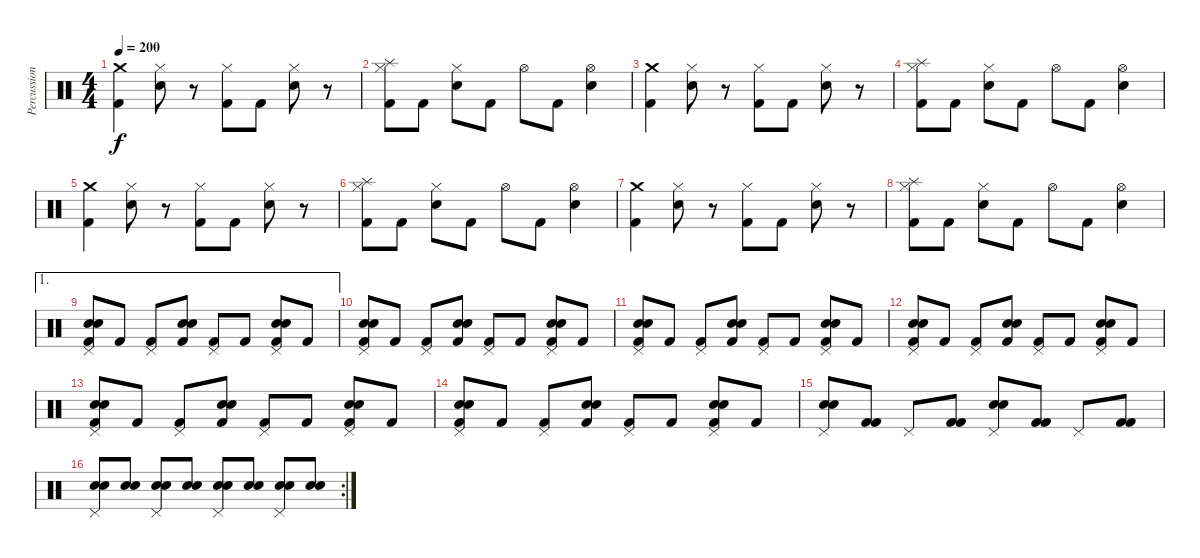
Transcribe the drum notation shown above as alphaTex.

\track ("Percussion" "Percussion") {instrument percussion}
\staff {score}
\articulation defaults
\ts (4 4)
\tempo 200
\clef neutral
\ks c
("Crash medium (hit)" "Kick (hit) 2").4{dy f} ("Hi-Hat (closed)" "Snare (hit) 2").8 r.8 ("Hi-Hat (closed)" "Kick (hit) 2").8 "Kick (hit) 2".8 ("Hi-Hat (closed)" "Snare (hit) 2").8 r.8 |
("Splash (hit)" "Hi-Hat (closed)" "Kick (hit) 2").8 "Kick (hit) 2".8 ("Hi-Hat (closed)" "Snare (hit) 2").8 "Kick (hit) 2".8 "Hi-Hat (open)".8 "Kick (hit) 2".8 ("Hi-Hat (open)" "Snare (hit) 2").4 |
("Crash medium (hit)" "Kick (hit) 2").4 ("Hi-Hat (closed)" "Snare (hit) 2").8 r.8 ("Hi-Hat (closed)" "Kick (hit) 2").8 "Kick (hit) 2".8 ("Hi-Hat (closed)" "Snare (hit) 2").8 r.8 |
("Splash (hit)" "Hi-Hat (closed)" "Kick (hit) 2").8 "Kick (hit) 2".8 ("Hi-Hat (closed)" "Snare (hit) 2").8 "Kick (hit) 2".8 "Hi-Hat (open)".8 "Kick (hit) 2".8 ("Hi-Hat (open)" "Snare (hit) 2").4 |
("Crash medium (hit)" "Kick (hit) 2").4 ("Hi-Hat (closed)" "Snare (hit) 2").8 r.8 ("Hi-Hat (closed)" "Kick (hit) 2").8 "Kick (hit) 2".8 ("Hi-Hat (closed)" "Snare (hit) 2").8 r.8 |
("Splash (hit)" "Hi-Hat (closed)" "Kick (hit) 2").8 "Kick (hit) 2".8 ("Hi-Hat (closed)" "Snare (hit) 2").8 "Kick (hit) 2".8 "Hi-Hat (open)".8 "Kick (hit) 2".8 ("Hi-Hat (open)" "Snare (hit) 2").4 |
("Crash medium (hit)" "Kick (hit) 2").4 ("Hi-Hat (closed)" "Snare (hit) 2").8 r.8 ("Hi-Hat (closed)" "Kick (hit) 2").8 "Kick (hit) 2".8 ("Hi-Hat (closed)" "Snare (hit) 2").8 r.8 |
("Splash (hit)" "Hi-Hat (closed)" "Kick (hit) 2").8 "Kick (hit) 2".8 ("Hi-Hat (closed)" "Snare (hit) 2").8 "Kick (hit) 2".8 "Hi-Hat (open)".8 "Kick (hit) 2".8 ("Hi-Hat (open)" "Snare (hit) 2").4 |
\ae 1
("Pedal Hi-Hat (hit)" "Snare (hit) 2" "Electric Snare (hit)" "Kick (hit) 2").8 "Kick (hit) 2".8 ("Pedal Hi-Hat (hit)" "Kick (hit) 2").8 ("Snare (hit) 2" "Electric Snare (hit)" "Kick (hit) 2").8 ("Pedal Hi-Hat (hit)" "Kick (hit) 2").8 "Kick (hit) 2".8 ("Pedal Hi-Hat (hit)" "Snare (hit) 2" "Electric Snare (hit)" "Kick (hit) 2").8 "Kick (hit) 2".8 |
("Pedal Hi-Hat (hit)" "Snare (hit) 2" "Electric Snare (hit)" "Kick (hit) 2").8 "Kick (hit) 2".8 ("Pedal Hi-Hat (hit)" "Kick (hit) 2").8 ("Snare (hit) 2" "Electric Snare (hit)" "Kick (hit) 2").8 ("Pedal Hi-Hat (hit)" "Kick (hit) 2").8 "Kick (hit) 2".8 ("Pedal Hi-Hat (hit)" "Snare (hit) 2" "Electric Snare (hit)" "Kick (hit) 2").8 "Kick (hit) 2".8 |
("Pedal Hi-Hat (hit)" "Snare (hit) 2" "Electric Snare (hit)" "Kick (hit) 2").8 "Kick (hit) 2".8 ("Pedal Hi-Hat (hit)" "Kick (hit) 2").8 ("Snare (hit) 2" "Electric Snare (hit)" "Kick (hit) 2").8 ("Pedal Hi-Hat (hit)" "Kick (hit) 2").8 "Kick (hit) 2".8 ("Pedal Hi-Hat (hit)" "Snare (hit) 2" "Electric Snare (hit)" "Kick (hit) 2").8 "Kick (hit) 2".8 |
("Pedal Hi-Hat (hit)" "Snare (hit) 2" "Electric Snare (hit)" "Kick (hit) 2").8 "Kick (hit) 2".8 ("Pedal Hi-Hat (hit)" "Kick (hit) 2").8 ("Snare (hit) 2" "Electric Snare (hit)" "Kick (hit) 2").8 ("Pedal Hi-Hat (hit)" "Kick (hit) 2").8 "Kick (hit) 2".8 ("Pedal Hi-Hat (hit)" "Snare (hit) 2" "Electric Snare (hit)" "Kick (hit) 2").8 "Kick (hit) 2".8 |
("Pedal Hi-Hat (hit)" "Snare (hit) 2" "Electric Snare (hit)" "Kick (hit) 2").8 "Kick (hit) 2".8 ("Pedal Hi-Hat (hit)" "Kick (hit) 2").8 ("Snare (hit) 2" "Electric Snare (hit)" "Kick (hit) 2").8 ("Pedal Hi-Hat (hit)" "Kick (hit) 2").8 "Kick (hit) 2".8 ("Pedal Hi-Hat (hit)" "Snare (hit) 2" "Electric Snare (hit)" "Kick (hit) 2").8 "Kick (hit) 2".8 |
("Pedal Hi-Hat (hit)" "Snare (hit) 2" "Electric Snare (hit)" "Kick (hit) 2").8 "Kick (hit) 2".8 ("Pedal Hi-Hat (hit)" "Kick (hit) 2").8 ("Snare (hit) 2" "Electric Snare (hit)" "Kick (hit) 2").8 ("Pedal Hi-Hat (hit)" "Kick (hit) 2").8 "Kick (hit) 2".8 ("Pedal Hi-Hat (hit)" "Snare (hit) 2" "Electric Snare (hit)" "Kick (hit) 2").8 "Kick (hit) 2".8 |
("Pedal Hi-Hat (hit)" "Snare (hit) 2" "Electric Snare (hit)").8 ("Kick (hit) 2" "Kick (hit) 2").8 "Pedal Hi-Hat (hit)".8 ("Kick (hit) 2" "Kick (hit) 2").8 ("Pedal Hi-Hat (hit)" "Snare (hit) 2" "Electric Snare (hit)").8 ("Kick (hit) 2" "Kick (hit) 2").8 "Pedal Hi-Hat (hit)".8 ("Kick (hit) 2" "Kick (hit) 2").8 |
\rc 2
("Pedal Hi-Hat (hit)" "Snare (hit) 2" "Snare (hit) 2").8 ("Snare (hit) 2" "Snare (hit) 2").8 ("Pedal Hi-Hat (hit)" "Snare (hit) 2" "Snare (hit) 2").8 ("Snare (hit) 2" "Snare (hit) 2").8 ("Pedal Hi-Hat (hit)" "Snare (hit) 2" "Snare (hit) 2").8 ("Snare (hit) 2" "Snare (hit) 2").8 ("Pedal Hi-Hat (hit)" "Snare (hit) 2" "Snare (hit) 2").8 ("Snare (hit) 2" "Snare (hit) 2").8
